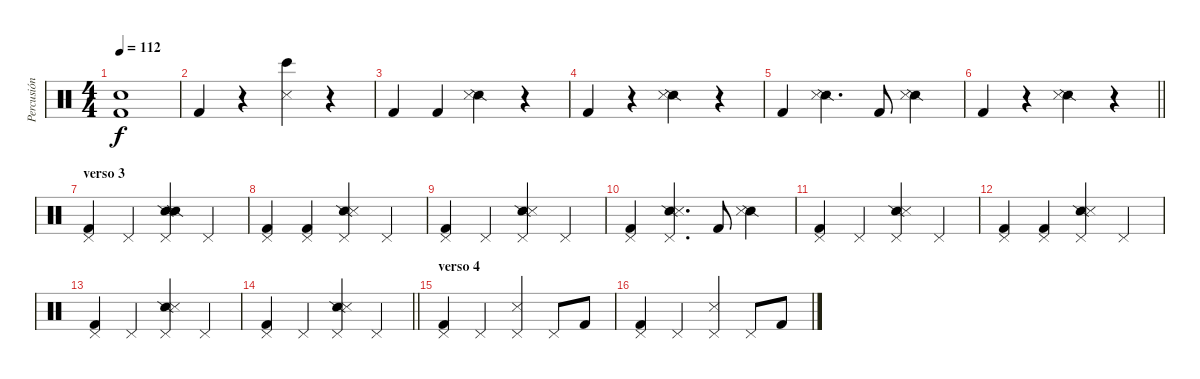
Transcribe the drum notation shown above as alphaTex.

\track ("Percusión" "Percusión") {instrument percussion}
\staff {score}
\articulation defaults
\ts (4 4)
\tempo 112
\clef neutral
\ks c
("Electric Snare (hit)" "Kick (hit) 2").1{dy f} |
"Kick (hit) 2".4 r.4 ("Metronome (hit)" "Bongo High (hit)").4 r.4 |
"Kick (hit) 2".4 "Kick (hit) 2".4 ("Snare (side stick) 2" "Metronome (hit)").4 r.4 |
"Kick (hit) 2".4 r.4 ("Snare (side stick) 2" "Metronome (hit)").4 r.4 |
"Kick (hit) 2".4 ("Snare (side stick) 2" "Metronome (hit)").4{d} "Kick (hit) 2".8 ("Snare (side stick) 2" "Metronome (hit)").4 |
\barLineRight lightlight "Kick (hit) 2".4
r.4 ("Snare (side stick) 2" "Metronome (hit)").4 r.4 |
\section ("" "verso 3")
("Kick (hit) 2" "Pedal Hi-Hat (hit)").4 "Pedal Hi-Hat (hit)".4 ("Snare (side stick) 2" "Pedal Hi-Hat (hit)" "Snare (side stick) 2").4 "Pedal Hi-Hat (hit)".4 |
("Kick (hit) 2" "Pedal Hi-Hat (hit)").4 ("Kick (hit) 2" "Pedal Hi-Hat (hit)").4 ("Snare (side stick) 2" "Pedal Hi-Hat (hit)" "Metronome (hit)").4 "Pedal Hi-Hat (hit)".4 |
("Kick (hit) 2" "Pedal Hi-Hat (hit)").4 "Pedal Hi-Hat (hit)".4 ("Snare (side stick) 2" "Pedal Hi-Hat (hit)" "Metronome (hit)").4 "Pedal Hi-Hat (hit)".4 |
("Kick (hit) 2" "Pedal Hi-Hat (hit)").4 ("Snare (side stick) 2" "Pedal Hi-Hat (hit)" "Metronome (hit)").4{d} "Kick (hit) 2".8 ("Snare (side stick) 2" "Metronome (hit)").4 |
("Kick (hit) 2" "Pedal Hi-Hat (hit)").4 "Pedal Hi-Hat (hit)".4 ("Snare (side stick) 2" "Pedal Hi-Hat (hit)" "Metronome (hit)").4 "Pedal Hi-Hat (hit)".4 |
("Kick (hit) 2" "Pedal Hi-Hat (hit)").4 ("Kick (hit) 2" "Pedal Hi-Hat (hit)").4 ("Snare (side stick) 2" "Pedal Hi-Hat (hit)" "Metronome (hit)").4 "Pedal Hi-Hat (hit)".4 |
("Kick (hit) 2" "Pedal Hi-Hat (hit)").4 "Pedal Hi-Hat (hit)".4 ("Snare (side stick) 2" "Pedal Hi-Hat (hit)" "Metronome (hit)").4 "Pedal Hi-Hat (hit)".4 |
\barLineRight lightlight
("Kick (hit) 2" "Pedal Hi-Hat (hit)").4 "Pedal Hi-Hat (hit)".4 ("Snare (side stick) 2" "Pedal Hi-Hat (hit)" "Metronome (hit)").4 "Pedal Hi-Hat (hit)".4 |
\section ("" "verso 4")
("Pedal Hi-Hat (hit)" "Kick (hit) 2").4 "Pedal Hi-Hat (hit)".4 ("Pedal Hi-Hat (hit)" "Snare (side stick) 3").4 "Pedal Hi-Hat (hit)".8 "Kick (hit) 2".8 |
("Pedal Hi-Hat (hit)" "Kick (hit) 2").4 "Pedal Hi-Hat (hit)".4 ("Pedal Hi-Hat (hit)" "Snare (side stick) 3").4 "Pedal Hi-Hat (hit)".8 "Kick (hit) 2".8
